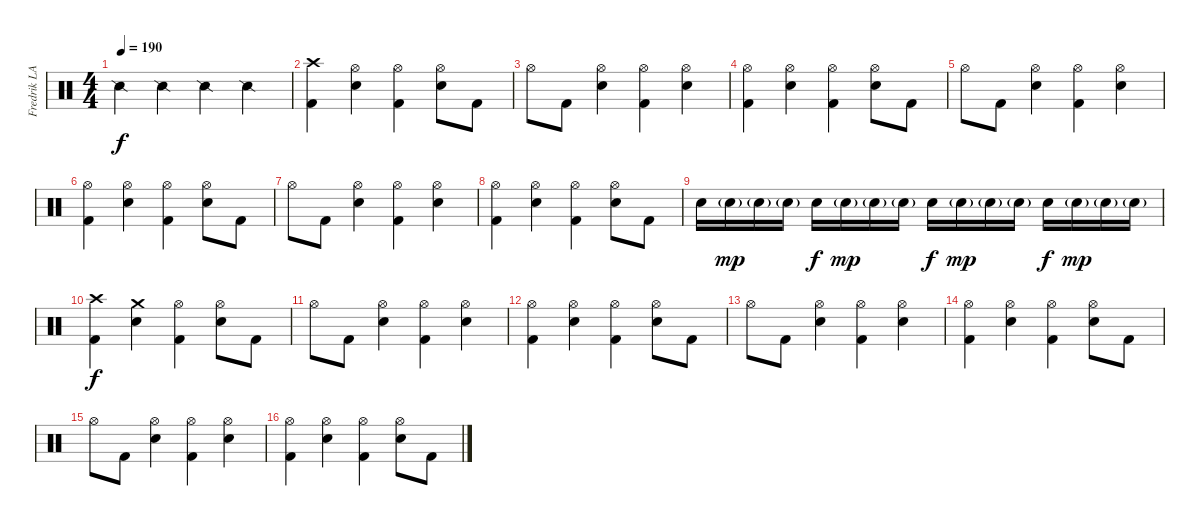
\track ("Fredrik LARZON" "Fredrik LA") {instrument percussion}
\staff {score}
\articulation defaults
\ts (4 4)
\tempo 190
\clef neutral
\ks c "Snare (side stick) 2".4{dy f} "Snare (side stick) 2".4 "Snare (side stick) 2".4 "Snare (side stick) 2".4
|
("Crash high (hit)" "Kick (hit) 2").4 ("Hi-Hat (open)" "Electric Snare (hit)").4 ("Hi-Hat (open)" "Kick (hit) 2").4 ("Hi-Hat (open)" "Electric Snare (hit)").8 "Kick (hit) 2".8 |
"Hi-Hat (open)".8 "Kick (hit) 2".8 ("Hi-Hat (open)" "Electric Snare (hit)").4 ("Hi-Hat (open)" "Kick (hit) 2").4 ("Hi-Hat (open)" "Electric Snare (hit)").4 |
("Hi-Hat (open)" "Kick (hit) 2").4 ("Hi-Hat (open)" "Electric Snare (hit)").4 ("Hi-Hat (open)" "Kick (hit) 2").4 ("Hi-Hat (open)" "Electric Snare (hit)").8 "Kick (hit) 2".8 |
"Hi-Hat (open)".8 "Kick (hit) 2".8 ("Hi-Hat (open)" "Electric Snare (hit)").4 ("Hi-Hat (open)" "Kick (hit) 2").4 ("Hi-Hat (open)" "Electric Snare (hit)").4 |
("Hi-Hat (open)" "Kick (hit) 2").4 ("Hi-Hat (open)" "Electric Snare (hit)").4 ("Hi-Hat (open)" "Kick (hit) 2").4 ("Hi-Hat (open)" "Electric Snare (hit)").8 "Kick (hit) 2".8 |
"Hi-Hat (open)".8 "Kick (hit) 2".8 ("Hi-Hat (open)" "Electric Snare (hit)").4 ("Hi-Hat (open)" "Kick (hit) 2").4 ("Hi-Hat (open)" "Electric Snare (hit)").4 |
("Hi-Hat (open)" "Kick (hit) 2").4 ("Hi-Hat (open)" "Electric Snare (hit)").4 ("Hi-Hat (open)" "Kick (hit) 2").4 ("Hi-Hat (open)" "Electric Snare (hit)").8 "Kick (hit) 2".8 |
"Electric Snare (hit)".16 "Electric Snare (hit)"{g}.16{dy mp} "Electric Snare (hit)"{g}.16 "Electric Snare (hit)"{g}.16 "Electric Snare (hit)".16{dy f} "Electric Snare (hit)"{g}.16{dy mp} "Electric Snare (hit)"{g}.16 "Electric Snare (hit)"{g}.16 "Electric Snare (hit)".16{dy f} "Electric Snare (hit)"{g}.16{dy mp} "Electric Snare (hit)"{g}.16 "Electric Snare (hit)"{g}.16 "Electric Snare (hit)".16{dy f} "Electric Snare (hit)"{g}.16{dy mp} "Electric Snare (hit)"{g}.16 "Electric Snare (hit)"{g}.16 |
("Crash high (hit)" "Kick (hit) 2").4{dy f} ("Crash medium (hit)" "Electric Snare (hit)").4 ("Hi-Hat (open)" "Kick (hit) 2").4 ("Hi-Hat (open)" "Electric Snare (hit)").8 "Kick (hit) 2".8 |
"Hi-Hat (open)".8 "Kick (hit) 2".8 ("Hi-Hat (open)" "Electric Snare (hit)").4 ("Hi-Hat (open)" "Kick (hit) 2").4 ("Hi-Hat (open)" "Electric Snare (hit)").4 |
("Hi-Hat (open)" "Kick (hit) 2").4 ("Hi-Hat (open)" "Electric Snare (hit)").4 ("Hi-Hat (open)" "Kick (hit) 2").4 ("Hi-Hat (open)" "Electric Snare (hit)").8 "Kick (hit) 2".8 |
"Hi-Hat (open)".8 "Kick (hit) 2".8 ("Hi-Hat (open)" "Electric Snare (hit)").4 ("Hi-Hat (open)" "Kick (hit) 2").4 ("Hi-Hat (open)" "Electric Snare (hit)").4 |
("Hi-Hat (open)" "Kick (hit) 2").4 ("Hi-Hat (open)" "Electric Snare (hit)").4 ("Hi-Hat (open)" "Kick (hit) 2").4 ("Hi-Hat (open)" "Electric Snare (hit)").8 "Kick (hit) 2".8 |
"Hi-Hat (open)".8 "Kick (hit) 2".8 ("Hi-Hat (open)" "Electric Snare (hit)").4 ("Hi-Hat (open)" "Kick (hit) 2").4 ("Hi-Hat (open)" "Electric Snare (hit)").4 |
("Hi-Hat (open)" "Kick (hit) 2").4 ("Hi-Hat (open)" "Electric Snare (hit)").4 ("Hi-Hat (open)" "Kick (hit) 2").4 ("Hi-Hat (open)" "Electric Snare (hit)").8 "Kick (hit) 2".8
